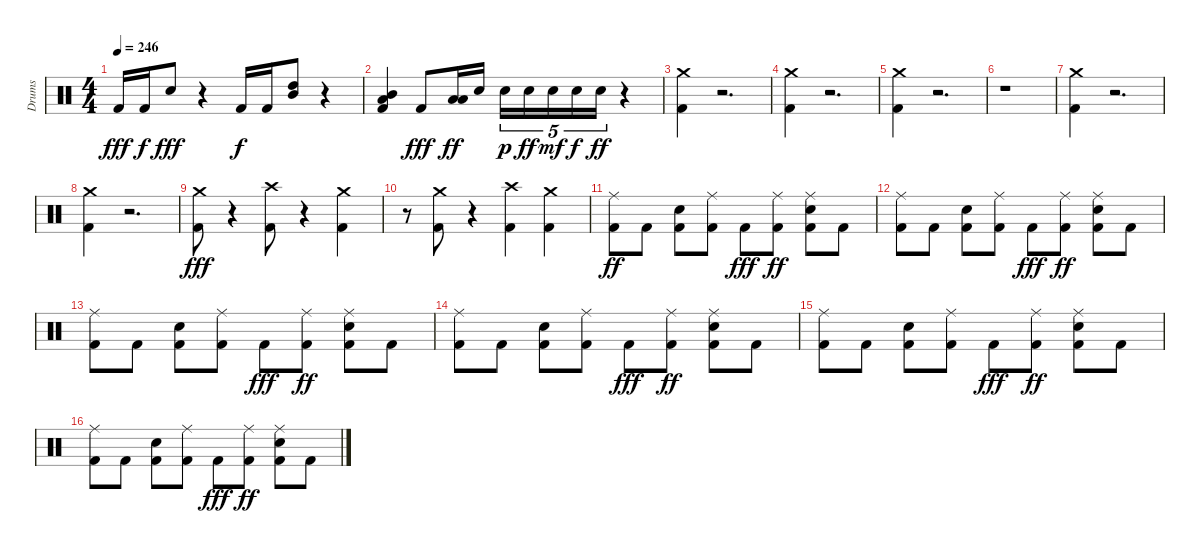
\track ("Drums" "Drums") {instrument percussion}
\staff {score}
\articulation defaults
\ts (4 4)
\tempo 246
\clef neutral
\ks c "Kick (hit) 2".16{dy fff volume 12} "Kick (hit) 2".16{dy f} "Snare (hit) 2".8{dy fff}
r.4 "Kick (hit) 2".16{dy f} "Kick (hit) 2".16 ("High Tom (hit)" "Mid Tom (hit)").8 r.4 |
("Kick (hit) 2" "Mid Tom (hit)" "Low Tom (hit)").4{volume 12} "Kick (hit) 2".8{dy fff} ("Low Tom (hit)" "Low Floor Tom (hit)").16{dy ff} "Snare (hit) 2".16 "Snare (hit) 2".16{tu (5 4) dy p} "Snare (hit) 2".16{tu (5 4) dy ff} "Snare (hit) 2".16{tu (5 4) dy mf} "Snare (hit) 2".16{tu (5 4) dy f} "Snare (hit) 2".16{tu (5 4) dy ff} r.4 |
("Kick (hit) 2" "Crash medium (hit)").4{volume 12} r.2{d} |
("Kick (hit) 2" "Crash medium (hit)").4{volume 12} r.2{d} |
("Kick (hit) 2" "Crash medium (hit)").4{volume 12} r.2{d} |
r.1 |
("Kick (hit) 2" "Crash medium (hit)").4{volume 12} r.2{d} |
("Kick (hit) 2" "Crash medium (hit)").4{volume 12} r.2{d} |
("Kick (hit) 2" "Crash medium (hit)").8{dy fff volume 12} r.4 ("Kick (hit) 2" "Crash high (hit)").8 r.4 ("Kick (hit) 2" "Crash medium (hit)").4 |
r.8 ("Kick (hit) 2" "Crash medium (hit)").8{volume 12} r.4 ("Kick (hit) 2" "Crash high (hit)").4 ("Kick (hit) 2" "Crash medium (hit)").4 |
("Kick (hit) 2" "Ride (middle)").8{dy ff volume 12} "Kick (hit) 2".8 ("Kick (hit) 2" "Snare (hit) 2").8 ("Kick (hit) 2" "Ride (middle)").8 "Kick (hit) 2".8{dy fff} ("Kick (hit) 2" "Ride (middle)").8{dy ff} ("Kick (hit) 2" "Snare (hit) 2" "Ride (middle)").8 "Kick (hit) 2".8 |
("Kick (hit) 2" "Ride (middle)").8{volume 12} "Kick (hit) 2".8 ("Kick (hit) 2" "Snare (hit) 2").8 ("Kick (hit) 2" "Ride (middle)").8 "Kick (hit) 2".8{dy fff} ("Kick (hit) 2" "Ride (middle)").8{dy ff} ("Kick (hit) 2" "Snare (hit) 2" "Ride (middle)").8 "Kick (hit) 2".8 |
("Kick (hit) 2" "Ride (middle)").8{volume 12} "Kick (hit) 2".8 ("Kick (hit) 2" "Snare (hit) 2").8 ("Kick (hit) 2" "Ride (middle)").8 "Kick (hit) 2".8{dy fff} ("Kick (hit) 2" "Ride (middle)").8{dy ff} ("Kick (hit) 2" "Snare (hit) 2" "Ride (middle)").8 "Kick (hit) 2".8 |
("Kick (hit) 2" "Ride (middle)").8{volume 12} "Kick (hit) 2".8 ("Kick (hit) 2" "Snare (hit) 2").8 ("Kick (hit) 2" "Ride (middle)").8 "Kick (hit) 2".8{dy fff} ("Kick (hit) 2" "Ride (middle)").8{dy ff} ("Kick (hit) 2" "Snare (hit) 2" "Ride (middle)").8 "Kick (hit) 2".8 |
("Kick (hit) 2" "Ride (middle)").8{volume 12} "Kick (hit) 2".8 ("Kick (hit) 2" "Snare (hit) 2").8 ("Kick (hit) 2" "Ride (middle)").8 "Kick (hit) 2".8{dy fff} ("Kick (hit) 2" "Ride (middle)").8{dy ff} ("Kick (hit) 2" "Snare (hit) 2" "Ride (middle)").8 "Kick (hit) 2".8 |
("Kick (hit) 2" "Ride (middle)").8{volume 12} "Kick (hit) 2".8 ("Kick (hit) 2" "Snare (hit) 2").8 ("Kick (hit) 2" "Ride (middle)").8 "Kick (hit) 2".8{dy fff} ("Kick (hit) 2" "Ride (middle)").8{dy ff} ("Kick (hit) 2" "Snare (hit) 2" "Ride (middle)").8 "Kick (hit) 2".8
